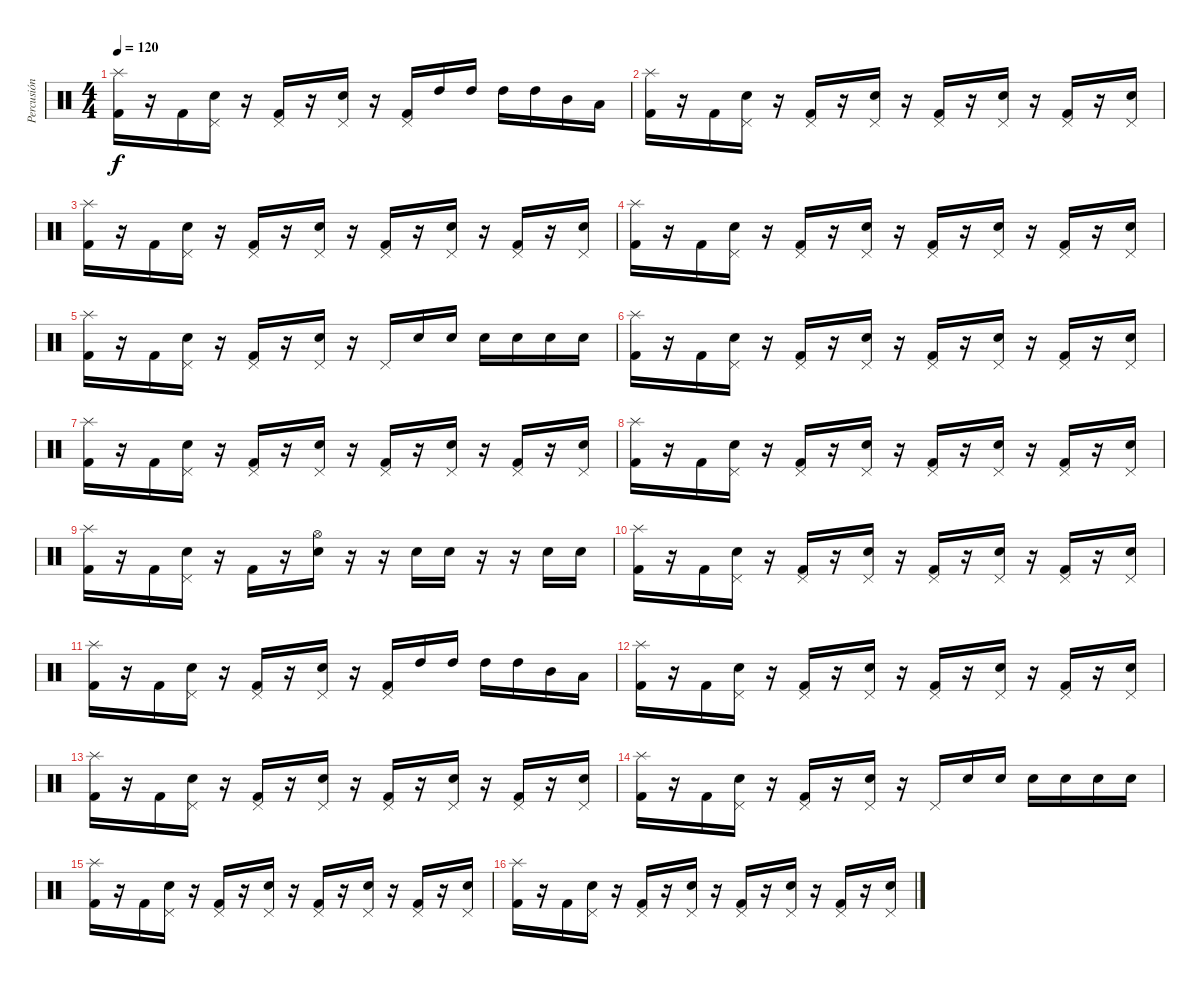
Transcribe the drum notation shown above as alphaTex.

\track ("Percusión" "Percusión") {instrument percussion}
\staff {score}
\articulation defaults
\ts (4 4)
\tempo 120
\clef neutral
\ks c
("Splash (hit)" "Kick (hit) 2").16{dy f} r.16 "Kick (hit) 2".16 ("Pedal Hi-Hat (hit)" "Snare (hit) 2").16 r.16 ("Pedal Hi-Hat (hit)" "Kick (hit) 2").16 r.16 ("Pedal Hi-Hat (hit)" "Snare (hit) 2").16 r.16 ("Pedal Hi-Hat (hit)" "Kick (hit) 2").16 "High Tom (hit)".16 "High Tom (hit)".16 "High Tom (hit)".16 "High Tom (hit)".16 "Mid Tom (hit)".16 "Low Tom (hit)".16 |
("Splash (hit)" "Kick (hit) 2").16 r.16 "Kick (hit) 2".16 ("Pedal Hi-Hat (hit)" "Snare (hit) 2").16 r.16 ("Pedal Hi-Hat (hit)" "Kick (hit) 2").16 r.16 ("Pedal Hi-Hat (hit)" "Snare (hit) 2").16 r.16 ("Pedal Hi-Hat (hit)" "Kick (hit) 2").16 r.16 ("Pedal Hi-Hat (hit)" "Snare (hit) 2").16 r.16 ("Pedal Hi-Hat (hit)" "Kick (hit) 2").16 r.16 ("Pedal Hi-Hat (hit)" "Snare (hit) 2").16 |
("Splash (hit)" "Kick (hit) 2").16 r.16 "Kick (hit) 2".16 ("Pedal Hi-Hat (hit)" "Snare (hit) 2").16 r.16 ("Pedal Hi-Hat (hit)" "Kick (hit) 2").16 r.16 ("Pedal Hi-Hat (hit)" "Snare (hit) 2").16 r.16 ("Pedal Hi-Hat (hit)" "Kick (hit) 2").16 r.16 ("Pedal Hi-Hat (hit)" "Snare (hit) 2").16 r.16 ("Pedal Hi-Hat (hit)" "Kick (hit) 2").16 r.16 ("Pedal Hi-Hat (hit)" "Snare (hit) 2").16 |
("Splash (hit)" "Kick (hit) 2").16 r.16 "Kick (hit) 2".16 ("Pedal Hi-Hat (hit)" "Snare (hit) 2").16 r.16 ("Pedal Hi-Hat (hit)" "Kick (hit) 2").16 r.16 ("Pedal Hi-Hat (hit)" "Snare (hit) 2").16 r.16 ("Pedal Hi-Hat (hit)" "Kick (hit) 2").16 r.16 ("Pedal Hi-Hat (hit)" "Snare (hit) 2").16 r.16 ("Pedal Hi-Hat (hit)" "Kick (hit) 2").16 r.16 ("Pedal Hi-Hat (hit)" "Snare (hit) 2").16 |
("Splash (hit)" "Kick (hit) 2").16 r.16 "Kick (hit) 2".16 ("Pedal Hi-Hat (hit)" "Snare (hit) 2").16 r.16 ("Pedal Hi-Hat (hit)" "Kick (hit) 2").16 r.16 ("Pedal Hi-Hat (hit)" "Snare (hit) 2").16 r.16 "Pedal Hi-Hat (hit)".16 "Snare (hit) 2".16 "Snare (hit) 2".16 "Snare (hit) 2".16 "Snare (hit) 2".16 "Snare (hit) 2".16 "Snare (hit) 2".16 |
("Splash (hit)" "Kick (hit) 2").16 r.16 "Kick (hit) 2".16 ("Pedal Hi-Hat (hit)" "Snare (hit) 2").16 r.16 ("Pedal Hi-Hat (hit)" "Kick (hit) 2").16 r.16 ("Pedal Hi-Hat (hit)" "Snare (hit) 2").16 r.16 ("Pedal Hi-Hat (hit)" "Kick (hit) 2").16 r.16 ("Pedal Hi-Hat (hit)" "Snare (hit) 2").16 r.16 ("Pedal Hi-Hat (hit)" "Kick (hit) 2").16 r.16 ("Pedal Hi-Hat (hit)" "Snare (hit) 2").16 |
("Splash (hit)" "Kick (hit) 2").16 r.16 "Kick (hit) 2".16 ("Pedal Hi-Hat (hit)" "Snare (hit) 2").16 r.16 ("Pedal Hi-Hat (hit)" "Kick (hit) 2").16 r.16 ("Pedal Hi-Hat (hit)" "Snare (hit) 2").16 r.16 ("Pedal Hi-Hat (hit)" "Kick (hit) 2").16 r.16 ("Pedal Hi-Hat (hit)" "Snare (hit) 2").16 r.16 ("Pedal Hi-Hat (hit)" "Kick (hit) 2").16 r.16 ("Pedal Hi-Hat (hit)" "Snare (hit) 2").16 |
("Splash (hit)" "Kick (hit) 2").16 r.16 "Kick (hit) 2".16 ("Pedal Hi-Hat (hit)" "Snare (hit) 2").16 r.16 ("Pedal Hi-Hat (hit)" "Kick (hit) 2").16 r.16 ("Pedal Hi-Hat (hit)" "Snare (hit) 2").16 r.16 ("Pedal Hi-Hat (hit)" "Kick (hit) 2").16 r.16 ("Pedal Hi-Hat (hit)" "Snare (hit) 2").16 r.16 ("Pedal Hi-Hat (hit)" "Kick (hit) 2").16 r.16 ("Pedal Hi-Hat (hit)" "Snare (hit) 2").16 |
("Splash (hit)" "Kick (hit) 2").16 r.16 "Kick (hit) 2".16 ("Pedal Hi-Hat (hit)" "Snare (hit) 2").16 r.16 "Kick (hit) 2".16 r.16 ("Hi-Hat (open)" "Snare (hit) 2").16 r.16 r.16 "Snare (hit) 2".16 "Snare (hit) 2".16 r.16 r.16 "Snare (hit) 2".16 "Snare (hit) 2".16 |
("Splash (hit)" "Kick (hit) 2").16 r.16 "Kick (hit) 2".16 ("Pedal Hi-Hat (hit)" "Snare (hit) 2").16 r.16 ("Pedal Hi-Hat (hit)" "Kick (hit) 2").16 r.16 ("Pedal Hi-Hat (hit)" "Snare (hit) 2").16 r.16 ("Pedal Hi-Hat (hit)" "Kick (hit) 2").16 r.16 ("Pedal Hi-Hat (hit)" "Snare (hit) 2").16 r.16 ("Pedal Hi-Hat (hit)" "Kick (hit) 2").16 r.16 ("Pedal Hi-Hat (hit)" "Snare (hit) 2").16 |
("Splash (hit)" "Kick (hit) 2").16 r.16 "Kick (hit) 2".16 ("Pedal Hi-Hat (hit)" "Snare (hit) 2").16 r.16 ("Pedal Hi-Hat (hit)" "Kick (hit) 2").16 r.16 ("Pedal Hi-Hat (hit)" "Snare (hit) 2").16 r.16 ("Pedal Hi-Hat (hit)" "Kick (hit) 2").16 "High Tom (hit)".16 "High Tom (hit)".16 "High Tom (hit)".16 "High Tom (hit)".16 "Mid Tom (hit)".16 "Low Tom (hit)".16 |
("Splash (hit)" "Kick (hit) 2").16 r.16 "Kick (hit) 2".16 ("Pedal Hi-Hat (hit)" "Snare (hit) 2").16 r.16 ("Pedal Hi-Hat (hit)" "Kick (hit) 2").16 r.16 ("Pedal Hi-Hat (hit)" "Snare (hit) 2").16 r.16 ("Pedal Hi-Hat (hit)" "Kick (hit) 2").16 r.16 ("Pedal Hi-Hat (hit)" "Snare (hit) 2").16 r.16 ("Pedal Hi-Hat (hit)" "Kick (hit) 2").16 r.16 ("Pedal Hi-Hat (hit)" "Snare (hit) 2").16 |
("Splash (hit)" "Kick (hit) 2").16 r.16 "Kick (hit) 2".16 ("Pedal Hi-Hat (hit)" "Snare (hit) 2").16 r.16 ("Pedal Hi-Hat (hit)" "Kick (hit) 2").16 r.16 ("Pedal Hi-Hat (hit)" "Snare (hit) 2").16 r.16 ("Pedal Hi-Hat (hit)" "Kick (hit) 2").16 r.16 ("Pedal Hi-Hat (hit)" "Snare (hit) 2").16 r.16 ("Pedal Hi-Hat (hit)" "Kick (hit) 2").16 r.16 ("Pedal Hi-Hat (hit)" "Snare (hit) 2").16 |
("Splash (hit)" "Kick (hit) 2").16 r.16 "Kick (hit) 2".16 ("Pedal Hi-Hat (hit)" "Snare (hit) 2").16 r.16 ("Pedal Hi-Hat (hit)" "Kick (hit) 2").16 r.16 ("Pedal Hi-Hat (hit)" "Snare (hit) 2").16 r.16 "Pedal Hi-Hat (hit)".16 "Snare (hit) 2".16 "Snare (hit) 2".16 "Snare (hit) 2".16 "Snare (hit) 2".16 "Snare (hit) 2".16 "Snare (hit) 2".16 |
("Splash (hit)" "Kick (hit) 2").16 r.16 "Kick (hit) 2".16 ("Pedal Hi-Hat (hit)" "Snare (hit) 2").16 r.16 ("Pedal Hi-Hat (hit)" "Kick (hit) 2").16 r.16 ("Pedal Hi-Hat (hit)" "Snare (hit) 2").16 r.16 ("Pedal Hi-Hat (hit)" "Kick (hit) 2").16 r.16 ("Pedal Hi-Hat (hit)" "Snare (hit) 2").16 r.16 ("Pedal Hi-Hat (hit)" "Kick (hit) 2").16 r.16 ("Pedal Hi-Hat (hit)" "Snare (hit) 2").16 |
("Splash (hit)" "Kick (hit) 2").16 r.16 "Kick (hit) 2".16 ("Pedal Hi-Hat (hit)" "Snare (hit) 2").16 r.16 ("Pedal Hi-Hat (hit)" "Kick (hit) 2").16 r.16 ("Pedal Hi-Hat (hit)" "Snare (hit) 2").16 r.16 ("Pedal Hi-Hat (hit)" "Kick (hit) 2").16 r.16 ("Pedal Hi-Hat (hit)" "Snare (hit) 2").16 r.16 ("Pedal Hi-Hat (hit)" "Kick (hit) 2").16 r.16 ("Pedal Hi-Hat (hit)" "Snare (hit) 2").16
